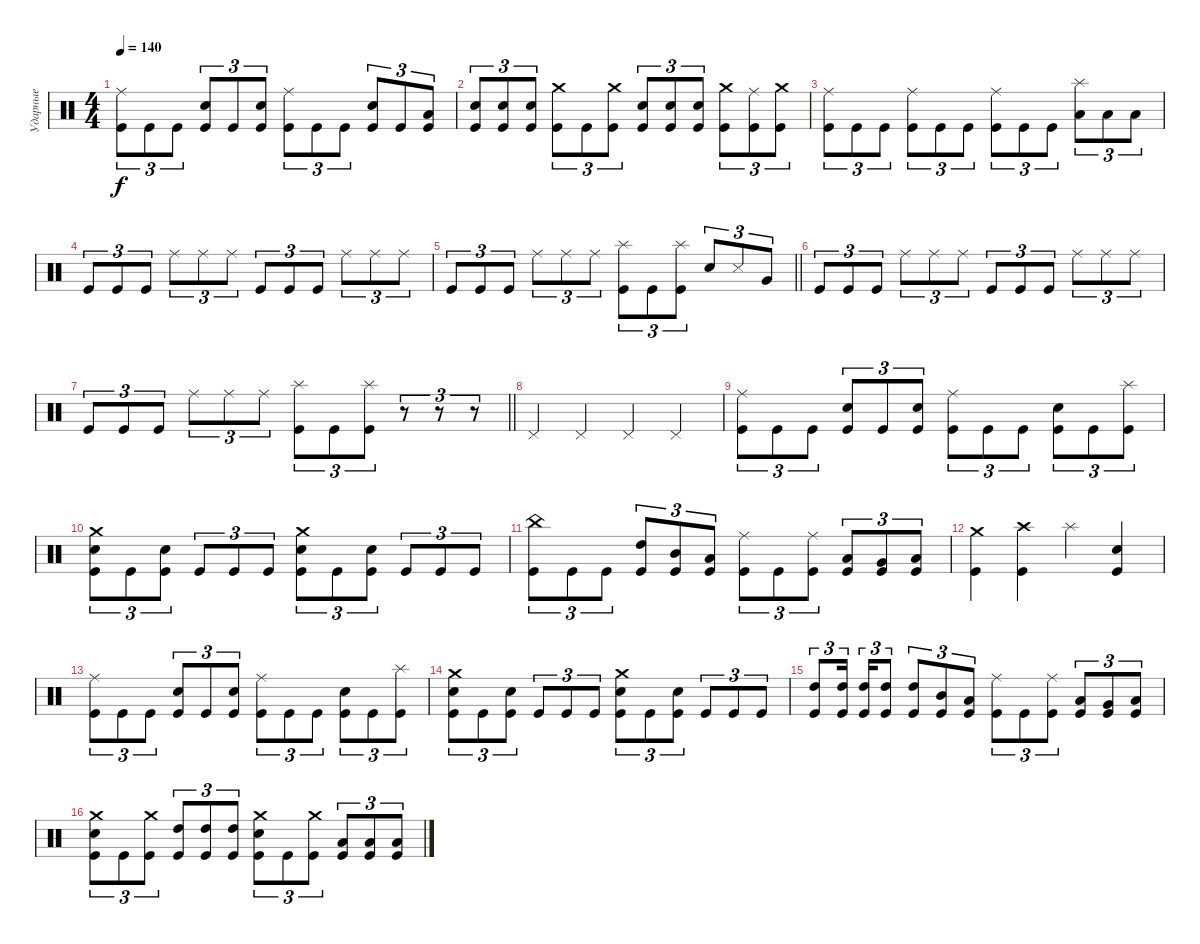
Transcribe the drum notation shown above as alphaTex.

\track ("Ударные" "Ударные") {instrument percussion}
\staff {score}
\articulation defaults
\ts (4 4)
\tempo 140
\clef neutral
\ks c
("Ride (middle)" "Kick (hit)").8{tu (3 2) dy f} "Kick (hit)".8{tu (3 2)} "Kick (hit)".8{tu (3 2)} ("Electric Snare (hit)" "Kick (hit)").8{tu (3 2)} "Kick (hit)".8{tu (3 2)} ("Electric Snare (hit)" "Kick (hit)").8{tu (3 2)} ("Ride (middle)" "Kick (hit)").8{tu (3 2)} "Kick (hit)".8{tu (3 2)} "Kick (hit)".8{tu (3 2)} ("Electric Snare (hit)" "Kick (hit)").8{tu (3 2)} "Kick (hit)".8{tu (3 2)} ("Low Tom (hit)" "Kick (hit)").8{tu (3 2)} |
("Electric Snare (hit)" "Kick (hit)").8{tu (3 2)} ("Electric Snare (hit)" "Kick (hit)").8{tu (3 2)} ("Electric Snare (hit)" "Kick (hit)").8{tu (3 2)} ("Crash medium (hit)" "Kick (hit)").8{tu (3 2)} "Kick (hit)".8{tu (3 2)} ("Crash medium (hit)" "Kick (hit)").8{tu (3 2)} ("Electric Snare (hit)" "Kick (hit)").8{tu (3 2)} ("Electric Snare (hit)" "Kick (hit)").8{tu (3 2)} ("Electric Snare (hit)" "Kick (hit)").8{tu (3 2)} ("Crash medium (hit)" "Kick (hit)").8{tu (3 2)} ("Ride (middle)" "Kick (hit)").8{tu (3 2)} ("Crash medium (hit)" "Kick (hit)").8{tu (3 2)} |
("Ride (middle)" "Kick (hit)").8{tu (3 2)} "Kick (hit)".8{tu (3 2)} "Kick (hit)".8{tu (3 2)} ("Ride (middle)" "Kick (hit)").8{tu (3 2)} "Kick (hit)".8{tu (3 2)} "Kick (hit)".8{tu (3 2)} ("Ride (middle)" "Kick (hit)").8{tu (3 2)} "Kick (hit)".8{tu (3 2)} "Kick (hit)".8{tu (3 2)} ("Low Floor Tom (hit)" "Splash (hit)").8{tu (3 2)} "Low Floor Tom (hit)".8{tu (3 2)} "Low Floor Tom (hit)".8{tu (3 2)} |
"Kick (hit)".8{tu (3 2)} "Kick (hit)".8{tu (3 2)} "Kick (hit)".8{tu (3 2)} "Ride (middle)".8{tu (3 2)} "Ride (middle)".8{tu (3 2)} "Ride (middle)".8{tu (3 2)} "Kick (hit)".8{tu (3 2)} "Kick (hit)".8{tu (3 2)} "Kick (hit)".8{tu (3 2)} "Ride (middle)".8{tu (3 2)} "Ride (middle)".8{tu (3 2)} "Ride (middle)".8{tu (3 2)} |
\barLineRight lightlight "Kick (hit)".8{tu (3 2)} "Kick (hit)".8{tu (3 2)} "Kick (hit)".8{tu (3 2)} "Ride (middle)".8{tu (3 2)} "Ride (middle)".8{tu (3 2)} "Ride (middle)".8{tu (3 2)}
("Splash (hit)" "Kick (hit)").8{tu (3 2)} "Kick (hit)".8{tu (3 2)} ("Splash (hit)" "Kick (hit)").8{tu (3 2)} "Electric Snare (hit)".8{tu (3 2)} "Snare (side stick) 3".8{tu (3 2)} "Very Low Tom (hit)".8{tu (3 2)} |
"Kick (hit)".8{tu (3 2)} "Kick (hit)".8{tu (3 2)} "Kick (hit)".8{tu (3 2)} "Ride (middle)".8{tu (3 2)} "Ride (middle)".8{tu (3 2)} "Ride (middle)".8{tu (3 2)} "Kick (hit)".8{tu (3 2)} "Kick (hit)".8{tu (3 2)} "Kick (hit)".8{tu (3 2)} "Ride (middle)".8{tu (3 2)} "Ride (middle)".8{tu (3 2)} "Ride (middle)".8{tu (3 2)} |
\barLineRight lightlight "Kick (hit)".8{tu (3 2)} "Kick (hit)".8{tu (3 2)} "Kick (hit)".8{tu (3 2)} "Ride (middle)".8{tu (3 2)} "Ride (middle)".8{tu (3 2)} "Ride (middle)".8{tu (3 2)}
("Splash (hit)" "Kick (hit)").8{tu (3 2)} "Kick (hit)".8{tu (3 2)} ("Splash (hit)" "Kick (hit)").8{tu (3 2)} r.8{tu (3 2)} r.8{tu (3 2)} r.8{tu (3 2)} |
\section ("" " ")
"Pedal Hi-Hat (hit)".4 "Pedal Hi-Hat (hit)".4 "Pedal Hi-Hat (hit)".4 "Pedal Hi-Hat (hit)".4 |
("Ride (middle)" "Kick (hit)").8{tu (3 2)} "Kick (hit)".8{tu (3 2)} "Kick (hit)".8{tu (3 2)} ("Electric Snare (hit)" "Kick (hit)").8{tu (3 2)} "Kick (hit)".8{tu (3 2)} ("Electric Snare (hit)" "Kick (hit)").8{tu (3 2)} ("Ride (middle)" "Kick (hit)").8{tu (3 2)} "Kick (hit)".8{tu (3 2)} "Kick (hit)".8{tu (3 2)} ("Electric Snare (hit)" "Kick (hit)").8{tu (3 2)} "Kick (hit)".8{tu (3 2)} ("Splash (hit)" "Kick (hit)").8{tu (3 2)} |
("Crash medium (hit)" "Electric Snare (hit)" "Kick (hit)").8{tu (3 2)} "Kick (hit)".8{tu (3 2)} ("Kick (hit)" "Electric Snare (hit)").8{tu (3 2)} "Kick (hit)".8{tu (3 2)} "Kick (hit)".8{tu (3 2)} "Kick (hit)".8{tu (3 2)} ("Crash medium (hit)" "Kick (hit)" "Electric Snare (hit)").8{tu (3 2)} "Kick (hit)".8{tu (3 2)} ("Kick (hit)" "Electric Snare (hit)").8{tu (3 2)} "Kick (hit)".8{tu (3 2)} "Kick (hit)".8{tu (3 2)} "Kick (hit)".8{tu (3 2)} |
("China (hit)" "Kick (hit)").8{tu (3 2)} "Kick (hit)".8{tu (3 2)} "Kick (hit)".8{tu (3 2)} ("High Tom (hit)" "Kick (hit)").8{tu (3 2)} ("Mid Tom (hit)" "Kick (hit)").8{tu (3 2)} ("Low Tom (hit)" "Kick (hit)").8{tu (3 2)} ("Ride (middle)" "Kick (hit)").8{tu (3 2)} "Kick (hit)".8{tu (3 2)} ("Ride (middle)" "Kick (hit)").8{tu (3 2)} ("Low Tom (hit)" "Kick (hit)").8{tu (3 2)} ("Very Low Tom (hit)" "Kick (hit)").8{tu (3 2)} ("Low Floor Tom (hit)" "Kick (hit)").8{tu (3 2)} |
("Crash medium (hit)" "Kick (hit)").4 ("Crash high (hit)" "Kick (hit)").4 "Splash (hit)".4 ("Electric Snare (hit)" "Kick (hit)").4 |
("Ride (middle)" "Kick (hit)").8{tu (3 2)} "Kick (hit)".8{tu (3 2)} "Kick (hit)".8{tu (3 2)} ("Electric Snare (hit)" "Kick (hit)").8{tu (3 2)} "Kick (hit)".8{tu (3 2)} ("Electric Snare (hit)" "Kick (hit)").8{tu (3 2)} ("Ride (middle)" "Kick (hit)").8{tu (3 2)} "Kick (hit)".8{tu (3 2)} "Kick (hit)".8{tu (3 2)} ("Electric Snare (hit)" "Kick (hit)").8{tu (3 2)} "Kick (hit)".8{tu (3 2)} ("Splash (hit)" "Kick (hit)").8{tu (3 2)} |
("Crash medium (hit)" "Electric Snare (hit)" "Kick (hit)").8{tu (3 2)} "Kick (hit)".8{tu (3 2)} ("Kick (hit)" "Electric Snare (hit)").8{tu (3 2)} "Kick (hit)".8{tu (3 2)} "Kick (hit)".8{tu (3 2)} "Kick (hit)".8{tu (3 2)} ("Crash medium (hit)" "Kick (hit)" "Electric Snare (hit)").8{tu (3 2)} "Kick (hit)".8{tu (3 2)} ("Kick (hit)" "Electric Snare (hit)").8{tu (3 2)} "Kick (hit)".8{tu (3 2)} "Kick (hit)".8{tu (3 2)} "Kick (hit)".8{tu (3 2)} |
("High Tom (hit)" "Kick (hit)").8{tu (3 2)} ("High Tom (hit)" "Kick (hit)").16{tu (3 2) beam splitsecondary} ("High Tom (hit)" "Kick (hit)").16{tu (3 2)} ("High Tom (hit)" "Kick (hit)").8{tu (3 2)} ("High Tom (hit)" "Kick (hit)").8{tu (3 2)} ("Mid Tom (hit)" "Kick (hit)").8{tu (3 2)} ("Low Tom (hit)" "Kick (hit)").8{tu (3 2)} ("Ride (middle)" "Kick (hit)").8{tu (3 2)} "Kick (hit)".8{tu (3 2)} ("Ride (middle)" "Kick (hit)").8{tu (3 2)} ("Low Tom (hit)" "Kick (hit)").8{tu (3 2)} ("Very Low Tom (hit)" "Kick (hit)").8{tu (3 2)} ("Low Floor Tom (hit)" "Kick (hit)").8{tu (3 2)} |
("Crash medium (hit)" "Electric Snare (hit)" "Kick (hit)").8{tu (3 2)} "Kick (hit)".8{tu (3 2)} ("Crash medium (hit)" "Kick (hit)").8{tu (3 2)} ("High Tom (hit)" "Kick (hit)").8{tu (3 2)} ("High Tom (hit)" "Kick (hit)").8{tu (3 2)} ("High Tom (hit)" "Kick (hit)").8{tu (3 2)} ("Crash medium (hit)" "Electric Snare (hit)" "Kick (hit)").8{tu (3 2)} "Kick (hit)".8{tu (3 2)} ("Crash medium (hit)" "Kick (hit)").8{tu (3 2)} ("Low Tom (hit)" "Kick (hit)").8{tu (3 2)} ("Low Tom (hit)" "Kick (hit)").8{tu (3 2)} ("Low Tom (hit)" "Kick (hit)").8{tu (3 2)}
